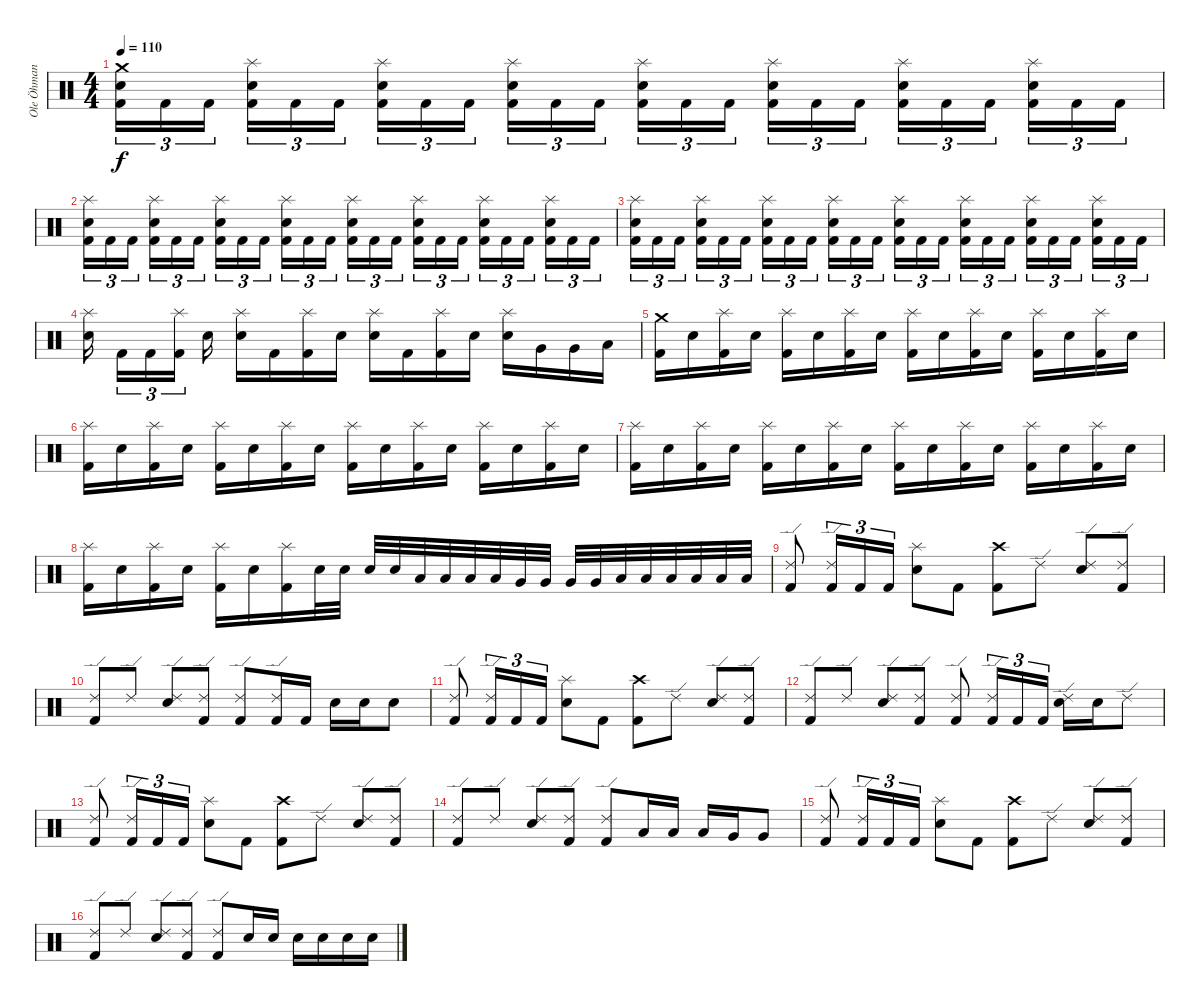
\track ("Ole Öhman" "Ole Öhman") {instrument percussion}
\staff {score}
\articulation defaults
\ts (4 4)
\tempo 110
\clef neutral
\ks c
("Crash medium (hit)" "Electric Snare (hit)" "Kick (hit) 2").16{tu (3 2) dy f} "Kick (hit) 2".16{tu (3 2)} "Kick (hit) 2".16{tu (3 2) beam splitsecondary} ("Splash (hit)" "Electric Snare (hit)" "Kick (hit) 2").16{tu (3 2)} "Kick (hit) 2".16{tu (3 2)} "Kick (hit) 2".16{tu (3 2)} ("Splash (hit)" "Electric Snare (hit)" "Kick (hit) 2").16{tu (3 2)} "Kick (hit) 2".16{tu (3 2)} "Kick (hit) 2".16{tu (3 2) beam splitsecondary} ("Splash (hit)" "Electric Snare (hit)" "Kick (hit) 2").16{tu (3 2)} "Kick (hit) 2".16{tu (3 2)} "Kick (hit) 2".16{tu (3 2)} ("Splash (hit)" "Electric Snare (hit)" "Kick (hit) 2").16{tu (3 2)} "Kick (hit) 2".16{tu (3 2)} "Kick (hit) 2".16{tu (3 2) beam splitsecondary} ("Splash (hit)" "Electric Snare (hit)" "Kick (hit) 2").16{tu (3 2)} "Kick (hit) 2".16{tu (3 2)} "Kick (hit) 2".16{tu (3 2)} ("Splash (hit)" "Electric Snare (hit)" "Kick (hit) 2").16{tu (3 2)} "Kick (hit) 2".16{tu (3 2)} "Kick (hit) 2".16{tu (3 2) beam splitsecondary} ("Splash (hit)" "Electric Snare (hit)" "Kick (hit) 2").16{tu (3 2)} "Kick (hit) 2".16{tu (3 2)} "Kick (hit) 2".16{tu (3 2)} |
("Splash (hit)" "Electric Snare (hit)" "Kick (hit) 2").16{tu (3 2)} "Kick (hit) 2".16{tu (3 2)} "Kick (hit) 2".16{tu (3 2) beam splitsecondary} ("Splash (hit)" "Electric Snare (hit)" "Kick (hit) 2").16{tu (3 2)} "Kick (hit) 2".16{tu (3 2)} "Kick (hit) 2".16{tu (3 2)} ("Splash (hit)" "Electric Snare (hit)" "Kick (hit) 2").16{tu (3 2)} "Kick (hit) 2".16{tu (3 2)} "Kick (hit) 2".16{tu (3 2) beam splitsecondary} ("Splash (hit)" "Electric Snare (hit)" "Kick (hit) 2").16{tu (3 2)} "Kick (hit) 2".16{tu (3 2)} "Kick (hit) 2".16{tu (3 2)} ("Splash (hit)" "Electric Snare (hit)" "Kick (hit) 2").16{tu (3 2)} "Kick (hit) 2".16{tu (3 2)} "Kick (hit) 2".16{tu (3 2) beam splitsecondary} ("Splash (hit)" "Electric Snare (hit)" "Kick (hit) 2").16{tu (3 2)} "Kick (hit) 2".16{tu (3 2)} "Kick (hit) 2".16{tu (3 2)} ("Splash (hit)" "Electric Snare (hit)" "Kick (hit) 2").16{tu (3 2)} "Kick (hit) 2".16{tu (3 2)} "Kick (hit) 2".16{tu (3 2) beam splitsecondary} ("Splash (hit)" "Electric Snare (hit)" "Kick (hit) 2").16{tu (3 2)} "Kick (hit) 2".16{tu (3 2)} "Kick (hit) 2".16{tu (3 2)} |
("Splash (hit)" "Electric Snare (hit)" "Kick (hit) 2").16{tu (3 2)} "Kick (hit) 2".16{tu (3 2)} "Kick (hit) 2".16{tu (3 2) beam splitsecondary} ("Splash (hit)" "Electric Snare (hit)" "Kick (hit) 2").16{tu (3 2)} "Kick (hit) 2".16{tu (3 2)} "Kick (hit) 2".16{tu (3 2)} ("Splash (hit)" "Electric Snare (hit)" "Kick (hit) 2").16{tu (3 2)} "Kick (hit) 2".16{tu (3 2)} "Kick (hit) 2".16{tu (3 2) beam splitsecondary} ("Splash (hit)" "Electric Snare (hit)" "Kick (hit) 2").16{tu (3 2)} "Kick (hit) 2".16{tu (3 2)} "Kick (hit) 2".16{tu (3 2)} ("Splash (hit)" "Electric Snare (hit)" "Kick (hit) 2").16{tu (3 2)} "Kick (hit) 2".16{tu (3 2)} "Kick (hit) 2".16{tu (3 2) beam splitsecondary} ("Splash (hit)" "Electric Snare (hit)" "Kick (hit) 2").16{tu (3 2)} "Kick (hit) 2".16{tu (3 2)} "Kick (hit) 2".16{tu (3 2)} ("Splash (hit)" "Electric Snare (hit)" "Kick (hit) 2").16{tu (3 2)} "Kick (hit) 2".16{tu (3 2)} "Kick (hit) 2".16{tu (3 2) beam splitsecondary} ("Splash (hit)" "Electric Snare (hit)" "Kick (hit) 2").16{tu (3 2)} "Kick (hit) 2".16{tu (3 2)} "Kick (hit) 2".16{tu (3 2)} |
("Splash (hit)" "Electric Snare (hit)").16{beam splitsecondary} "Kick (hit) 2".16{tu (3 2)} "Kick (hit) 2".16{tu (3 2)} ("Splash (hit)" "Kick (hit) 2").16{tu (3 2) beam splitsecondary} "Electric Snare (hit)".16 ("Splash (hit)" "Electric Snare (hit)").16 "Kick (hit) 2".16 ("Splash (hit)" "Kick (hit) 2").16 "Electric Snare (hit)".16 ("Splash (hit)" "Electric Snare (hit)").16 "Kick (hit) 2".16 ("Splash (hit)" "Kick (hit) 2").16 "Electric Snare (hit)".16 ("Splash (hit)" "Electric Snare (hit)").16 "Very Low Tom (hit)".16 "Very Low Tom (hit)".16 "Low Floor Tom (hit)".16 |
("Crash medium (hit)" "Kick (hit) 2").16 "Electric Snare (hit)".16 ("Splash (hit)" "Kick (hit) 2").16 "Electric Snare (hit)".16 ("Splash (hit)" "Kick (hit) 2").16 "Electric Snare (hit)".16 ("Splash (hit)" "Kick (hit) 2").16 "Electric Snare (hit)".16 ("Splash (hit)" "Kick (hit) 2").16 "Electric Snare (hit)".16 ("Splash (hit)" "Kick (hit) 2").16 "Electric Snare (hit)".16 ("Splash (hit)" "Kick (hit) 2").16 "Electric Snare (hit)".16 ("Splash (hit)" "Kick (hit) 2").16 "Electric Snare (hit)".16 |
("Splash (hit)" "Kick (hit) 2").16 "Electric Snare (hit)".16 ("Splash (hit)" "Kick (hit) 2").16 "Electric Snare (hit)".16 ("Splash (hit)" "Kick (hit) 2").16 "Electric Snare (hit)".16 ("Splash (hit)" "Kick (hit) 2").16 "Electric Snare (hit)".16 ("Splash (hit)" "Kick (hit) 2").16 "Electric Snare (hit)".16 ("Splash (hit)" "Kick (hit) 2").16 "Electric Snare (hit)".16 ("Splash (hit)" "Kick (hit) 2").16 "Electric Snare (hit)".16 ("Splash (hit)" "Kick (hit) 2").16 "Electric Snare (hit)".16 |
("Splash (hit)" "Kick (hit) 2").16 "Electric Snare (hit)".16 ("Splash (hit)" "Kick (hit) 2").16 "Electric Snare (hit)".16 ("Splash (hit)" "Kick (hit) 2").16 "Electric Snare (hit)".16 ("Splash (hit)" "Kick (hit) 2").16 "Electric Snare (hit)".16 ("Splash (hit)" "Kick (hit) 2").16 "Electric Snare (hit)".16 ("Splash (hit)" "Kick (hit) 2").16 "Electric Snare (hit)".16 ("Splash (hit)" "Kick (hit) 2").16 "Electric Snare (hit)".16 ("Splash (hit)" "Kick (hit) 2").16 "Electric Snare (hit)".16 |
("Splash (hit)" "Kick (hit) 2").16 "Electric Snare (hit)".16 ("Splash (hit)" "Kick (hit) 2").16 "Electric Snare (hit)".16 ("Splash (hit)" "Kick (hit) 2").16 "Electric Snare (hit)".16 ("Splash (hit)" "Kick (hit) 2").16 "Electric Snare (hit)".32 "Electric Snare (hit)".32 "Electric Snare (hit)".32 "Electric Snare (hit)".32 "Low Tom (hit)".32 "Low Tom (hit)".32 "Low Tom (hit)".32 "Low Tom (hit)".32 "Very Low Tom (hit)".32 "Very Low Tom (hit)".32 "Very Low Tom (hit)".32 "Very Low Tom (hit)".32 "Low Floor Tom (hit)".32 "Low Floor Tom (hit)".32 "Low Floor Tom (hit)".32 "Low Floor Tom (hit)".32 "Low Floor Tom (hit)".32 "Low Floor Tom (hit)".32 |
("Ride (edge) 2" "Kick (hit) 2").8 ("Ride (edge) 2" "Kick (hit) 2").16{tu (3 2)} "Kick (hit) 2".16{tu (3 2)} "Kick (hit) 2".16{tu (3 2)} ("Splash (hit)" "Electric Snare (hit)").8 "Kick (hit) 2".8 ("Crash high (hit)" "Kick (hit) 2").8 "Ride (edge) 2".8 ("Ride (edge) 2" "Electric Snare (hit)").8 ("Ride (edge) 2" "Kick (hit) 2").8 |
("Ride (edge) 2" "Kick (hit) 2").8 "Ride (edge) 2".8 ("Ride (edge) 2" "Electric Snare (hit)").8 ("Ride (edge) 2" "Kick (hit) 2").8 ("Ride (edge) 2" "Kick (hit) 2").8 ("Ride (edge) 2" "Kick (hit) 2").16 "Kick (hit) 2".16 "Electric Snare (hit)".16 "Electric Snare (hit)".16 "Electric Snare (hit)".8 |
("Ride (edge) 2" "Kick (hit) 2").8 ("Ride (edge) 2" "Kick (hit) 2").16{tu (3 2)} "Kick (hit) 2".16{tu (3 2)} "Kick (hit) 2".16{tu (3 2)} ("Splash (hit)" "Electric Snare (hit)").8 "Kick (hit) 2".8 ("Crash high (hit)" "Kick (hit) 2").8 "Ride (edge) 2".8 ("Ride (edge) 2" "Electric Snare (hit)").8 ("Ride (edge) 2" "Kick (hit) 2").8 |
("Ride (edge) 2" "Kick (hit) 2").8 "Ride (edge) 2".8 ("Ride (edge) 2" "Electric Snare (hit)").8 ("Ride (edge) 2" "Kick (hit) 2").8 ("Ride (edge) 2" "Kick (hit) 2").8 ("Ride (edge) 2" "Kick (hit) 2").16{tu (3 2)} "Kick (hit) 2".16{tu (3 2)} "Kick (hit) 2".16{tu (3 2)} ("Ride (edge) 2" "Electric Snare (hit)").16 "Electric Snare (hit)".16 "Ride (edge) 2".8 |
("Ride (edge) 2" "Kick (hit) 2").8 ("Ride (edge) 2" "Kick (hit) 2").16{tu (3 2)} "Kick (hit) 2".16{tu (3 2)} "Kick (hit) 2".16{tu (3 2)} ("Splash (hit)" "Electric Snare (hit)").8 "Kick (hit) 2".8 ("Crash high (hit)" "Kick (hit) 2").8 "Ride (edge) 2".8 ("Ride (edge) 2" "Electric Snare (hit)").8 ("Ride (edge) 2" "Kick (hit) 2").8 |
("Ride (edge) 2" "Kick (hit) 2").8 "Ride (edge) 2".8 ("Ride (edge) 2" "Electric Snare (hit)").8 ("Ride (edge) 2" "Kick (hit) 2").8 ("Ride (edge) 2" "Kick (hit) 2").8 "Low Floor Tom (hit)".16 "Low Floor Tom (hit)".16 "Low Floor Tom (hit)".16 "Very Low Tom (hit)".16 "Very Low Tom (hit)".8 |
("Ride (edge) 2" "Kick (hit) 2").8 ("Ride (edge) 2" "Kick (hit) 2").16{tu (3 2)} "Kick (hit) 2".16{tu (3 2)} "Kick (hit) 2".16{tu (3 2)} ("Splash (hit)" "Electric Snare (hit)").8 "Kick (hit) 2".8 ("Crash high (hit)" "Kick (hit) 2").8 "Ride (edge) 2".8 ("Ride (edge) 2" "Electric Snare (hit)").8 ("Ride (edge) 2" "Kick (hit) 2").8 |
("Ride (edge) 2" "Kick (hit) 2").8 "Ride (edge) 2".8 ("Ride (edge) 2" "Electric Snare (hit)").8 ("Ride (edge) 2" "Kick (hit) 2").8 ("Ride (edge) 2" "Kick (hit) 2").8 "Electric Snare (hit)".16 "Electric Snare (hit)".16 "Electric Snare (hit)".16 "Electric Snare (hit)".16 "Electric Snare (hit)".16 "Electric Snare (hit)".16
